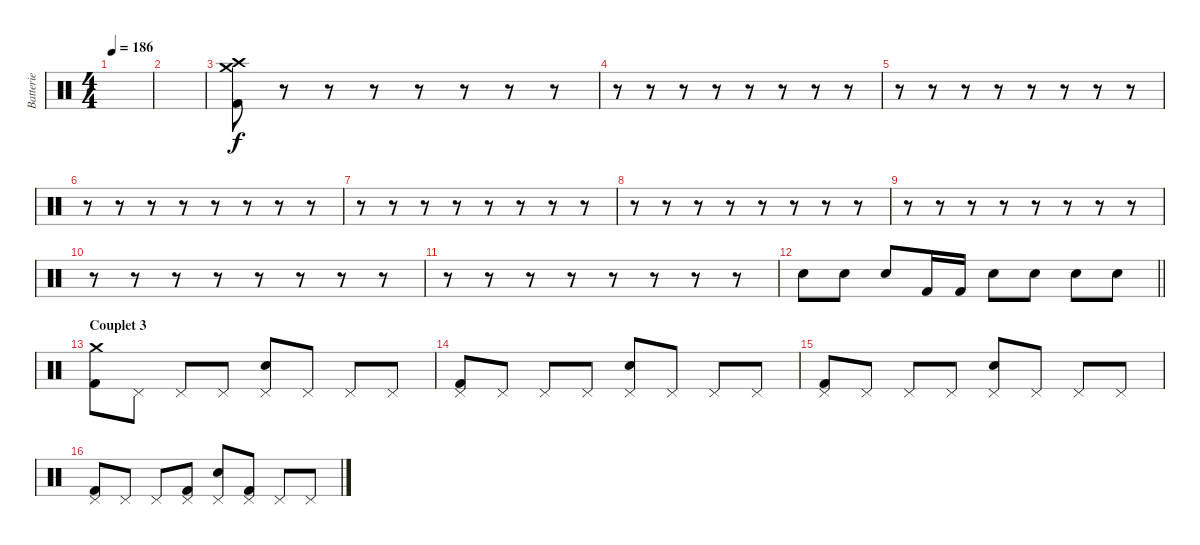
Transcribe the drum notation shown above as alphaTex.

\track ("Batterie" "Batterie") {instrument percussion}
\staff {score}
\articulation defaults
\ts (4 4)
\tempo 186
\clef neutral
\ks c
|
|
("Kick (hit) 2" "Crash medium (hit)" "Crash high (hit)").8 r.8 r.8 r.8 r.8 r.8 r.8 r.8 |
r.8 r.8 r.8 r.8 r.8 r.8 r.8 r.8 |
r.8 r.8 r.8 r.8 r.8 r.8 r.8 r.8 |
r.8 r.8 r.8 r.8 r.8 r.8 r.8 r.8 |
r.8 r.8 r.8 r.8 r.8 r.8 r.8 r.8 |
r.8 r.8 r.8 r.8 r.8 r.8 r.8 r.8 |
r.8 r.8 r.8 r.8 r.8 r.8 r.8 r.8 |
r.8 r.8 r.8 r.8 r.8 r.8 r.8 r.8 |
r.8 r.8 r.8 r.8 r.8 r.8 r.8 r.8 |
\barLineRight lightlight "Electric Snare (hit)".8 "Electric Snare (hit)".8 "Electric Snare (hit)".8 "Kick (hit) 2".16 "Kick (hit) 2".16 "Electric Snare (hit)".8 "Electric Snare (hit)".8 "Electric Snare (hit)".8 "Electric Snare (hit)".8
|
\section ("" "Couplet 3")
("Kick (hit) 2" "Crash medium (hit)").8 "Pedal Hi-Hat (hit)".8 "Pedal Hi-Hat (hit)".8 "Pedal Hi-Hat (hit)".8 ("Electric Snare (hit)" "Pedal Hi-Hat (hit)").8 "Pedal Hi-Hat (hit)".8 "Pedal Hi-Hat (hit)".8 "Pedal Hi-Hat (hit)".8 |
("Kick (hit) 2" "Pedal Hi-Hat (hit)").8 "Pedal Hi-Hat (hit)".8 "Pedal Hi-Hat (hit)".8 "Pedal Hi-Hat (hit)".8 ("Electric Snare (hit)" "Pedal Hi-Hat (hit)").8 "Pedal Hi-Hat (hit)".8 "Pedal Hi-Hat (hit)".8 "Pedal Hi-Hat (hit)".8 |
("Kick (hit) 2" "Pedal Hi-Hat (hit)").8 "Pedal Hi-Hat (hit)".8 "Pedal Hi-Hat (hit)".8 "Pedal Hi-Hat (hit)".8 ("Electric Snare (hit)" "Pedal Hi-Hat (hit)").8 "Pedal Hi-Hat (hit)".8 "Pedal Hi-Hat (hit)".8 "Pedal Hi-Hat (hit)".8 |
("Kick (hit) 2" "Pedal Hi-Hat (hit)").8 "Pedal Hi-Hat (hit)".8 "Pedal Hi-Hat (hit)".8 ("Kick (hit) 2" "Pedal Hi-Hat (hit)").8 ("Electric Snare (hit)" "Pedal Hi-Hat (hit)").8 ("Kick (hit) 2" "Pedal Hi-Hat (hit)").8 "Pedal Hi-Hat (hit)".8 "Pedal Hi-Hat (hit)".8
